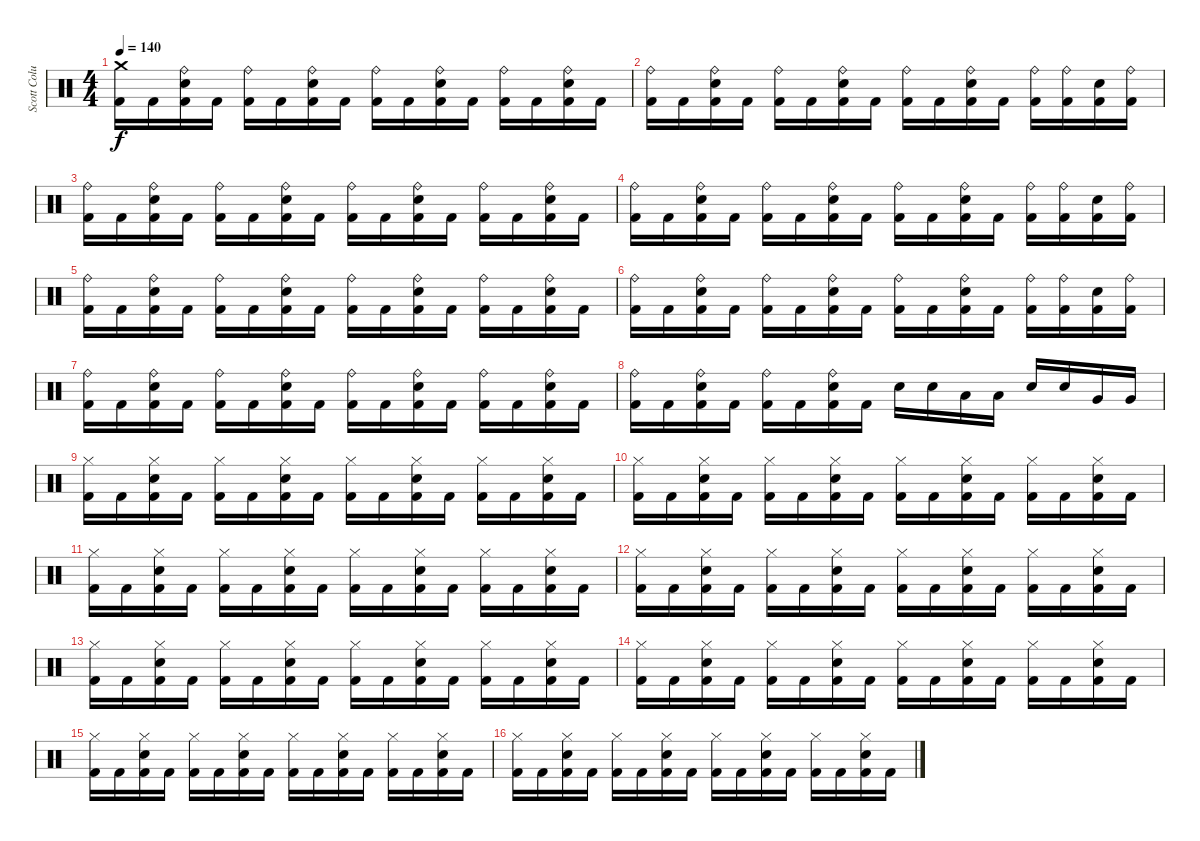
\track ("Scott Columbus(Drums)" "Scott Colu") {instrument percussion}
\staff {score}
\articulation defaults
\ts (4 4)
\tempo 140
\clef neutral
\ks c
("Crash medium (hit)" "Kick (hit) 2").16{dy f} "Kick (hit) 2".16 ("Ride (bell)" "Snare (hit) 2" "Kick (hit) 2").16 "Kick (hit) 2".16 ("Ride (bell)" "Kick (hit) 2").16 "Kick (hit) 2".16 ("Ride (bell)" "Snare (hit) 2" "Kick (hit) 2").16 "Kick (hit) 2".16 ("Ride (bell)" "Kick (hit) 2").16 "Kick (hit) 2".16 ("Ride (bell)" "Snare (hit) 2" "Kick (hit) 2").16 "Kick (hit) 2".16 ("Ride (bell)" "Kick (hit) 2").16 "Kick (hit) 2".16 ("Ride (bell)" "Snare (hit) 2" "Kick (hit) 2").16 "Kick (hit) 2".16 |
("Ride (bell)" "Kick (hit) 2").16 "Kick (hit) 2".16 ("Ride (bell)" "Snare (hit) 2" "Kick (hit) 2").16 "Kick (hit) 2".16 ("Ride (bell)" "Kick (hit) 2").16 "Kick (hit) 2".16 ("Ride (bell)" "Snare (hit) 2" "Kick (hit) 2").16 "Kick (hit) 2".16 ("Ride (bell)" "Kick (hit) 2").16 "Kick (hit) 2".16 ("Ride (bell)" "Snare (hit) 2" "Kick (hit) 2").16 "Kick (hit) 2".16 ("Ride (bell)" "Kick (hit) 2").16 ("Ride (bell)" "Kick (hit) 2").16 ("Snare (hit) 2" "Kick (hit) 2").16 ("Ride (bell)" "Kick (hit) 2").16 |
("Ride (bell)" "Kick (hit) 2").16 "Kick (hit) 2".16 ("Ride (bell)" "Snare (hit) 2" "Kick (hit) 2").16 "Kick (hit) 2".16 ("Ride (bell)" "Kick (hit) 2").16 "Kick (hit) 2".16 ("Ride (bell)" "Snare (hit) 2" "Kick (hit) 2").16 "Kick (hit) 2".16 ("Ride (bell)" "Kick (hit) 2").16 "Kick (hit) 2".16 ("Ride (bell)" "Snare (hit) 2" "Kick (hit) 2").16 "Kick (hit) 2".16 ("Ride (bell)" "Kick (hit) 2").16 "Kick (hit) 2".16 ("Ride (bell)" "Snare (hit) 2" "Kick (hit) 2").16 "Kick (hit) 2".16 |
("Ride (bell)" "Kick (hit) 2").16 "Kick (hit) 2".16 ("Ride (bell)" "Snare (hit) 2" "Kick (hit) 2").16 "Kick (hit) 2".16 ("Ride (bell)" "Kick (hit) 2").16 "Kick (hit) 2".16 ("Ride (bell)" "Snare (hit) 2" "Kick (hit) 2").16 "Kick (hit) 2".16 ("Ride (bell)" "Kick (hit) 2").16 "Kick (hit) 2".16 ("Ride (bell)" "Snare (hit) 2" "Kick (hit) 2").16 "Kick (hit) 2".16 ("Ride (bell)" "Kick (hit) 2").16 ("Ride (bell)" "Kick (hit) 2").16 ("Snare (hit) 2" "Kick (hit) 2").16 ("Ride (bell)" "Kick (hit) 2").16 |
("Ride (bell)" "Kick (hit) 2").16 "Kick (hit) 2".16 ("Ride (bell)" "Snare (hit) 2" "Kick (hit) 2").16 "Kick (hit) 2".16 ("Ride (bell)" "Kick (hit) 2").16 "Kick (hit) 2".16 ("Ride (bell)" "Snare (hit) 2" "Kick (hit) 2").16 "Kick (hit) 2".16 ("Ride (bell)" "Kick (hit) 2").16 "Kick (hit) 2".16 ("Ride (bell)" "Snare (hit) 2" "Kick (hit) 2").16 "Kick (hit) 2".16 ("Ride (bell)" "Kick (hit) 2").16 "Kick (hit) 2".16 ("Ride (bell)" "Snare (hit) 2" "Kick (hit) 2").16 "Kick (hit) 2".16 |
("Ride (bell)" "Kick (hit) 2").16 "Kick (hit) 2".16 ("Ride (bell)" "Snare (hit) 2" "Kick (hit) 2").16 "Kick (hit) 2".16 ("Ride (bell)" "Kick (hit) 2").16 "Kick (hit) 2".16 ("Ride (bell)" "Snare (hit) 2" "Kick (hit) 2").16 "Kick (hit) 2".16 ("Ride (bell)" "Kick (hit) 2").16 "Kick (hit) 2".16 ("Ride (bell)" "Snare (hit) 2" "Kick (hit) 2").16 "Kick (hit) 2".16 ("Ride (bell)" "Kick (hit) 2").16 ("Ride (bell)" "Kick (hit) 2").16 ("Snare (hit) 2" "Kick (hit) 2").16 ("Ride (bell)" "Kick (hit) 2").16 |
("Ride (bell)" "Kick (hit) 2").16 "Kick (hit) 2".16 ("Ride (bell)" "Snare (hit) 2" "Kick (hit) 2").16 "Kick (hit) 2".16 ("Ride (bell)" "Kick (hit) 2").16 "Kick (hit) 2".16 ("Ride (bell)" "Snare (hit) 2" "Kick (hit) 2").16 "Kick (hit) 2".16 ("Ride (bell)" "Kick (hit) 2").16 "Kick (hit) 2".16 ("Ride (bell)" "Snare (hit) 2" "Kick (hit) 2").16 "Kick (hit) 2".16 ("Ride (bell)" "Kick (hit) 2").16 "Kick (hit) 2".16 ("Ride (bell)" "Snare (hit) 2" "Kick (hit) 2").16 "Kick (hit) 2".16 |
("Ride (bell)" "Kick (hit) 2").16 "Kick (hit) 2".16 ("Ride (bell)" "Snare (hit) 2" "Kick (hit) 2").16 "Kick (hit) 2".16 ("Ride (bell)" "Kick (hit) 2").16 "Kick (hit) 2".16 ("Ride (bell)" "Snare (hit) 2" "Kick (hit) 2").16 "Kick (hit) 2".16 "Snare (hit) 2".16 "Snare (hit) 2".16 "Low Tom (hit)".16 "Low Tom (hit)".16 "Snare (hit) 2".16 "Snare (hit) 2".16 "Very Low Tom (hit)".16 "Very Low Tom (hit)".16 |
("Hi-Hat (closed)" "Kick (hit) 2").16 "Kick (hit) 2".16 ("Hi-Hat (closed)" "Snare (hit) 2" "Kick (hit) 2").16 "Kick (hit) 2".16 ("Hi-Hat (closed)" "Kick (hit) 2").16 "Kick (hit) 2".16 ("Hi-Hat (closed)" "Snare (hit) 2" "Kick (hit) 2").16 "Kick (hit) 2".16 ("Hi-Hat (closed)" "Kick (hit) 2").16 "Kick (hit) 2".16 ("Hi-Hat (closed)" "Snare (hit) 2" "Kick (hit) 2").16 "Kick (hit) 2".16 ("Hi-Hat (closed)" "Kick (hit) 2").16 "Kick (hit) 2".16 ("Hi-Hat (closed)" "Snare (hit) 2" "Kick (hit) 2").16 "Kick (hit) 2".16 |
("Hi-Hat (closed)" "Kick (hit) 2").16 "Kick (hit) 2".16 ("Hi-Hat (closed)" "Snare (hit) 2" "Kick (hit) 2").16 "Kick (hit) 2".16 ("Hi-Hat (closed)" "Kick (hit) 2").16 "Kick (hit) 2".16 ("Hi-Hat (closed)" "Snare (hit) 2" "Kick (hit) 2").16 "Kick (hit) 2".16 ("Hi-Hat (closed)" "Kick (hit) 2").16 "Kick (hit) 2".16 ("Hi-Hat (closed)" "Snare (hit) 2" "Kick (hit) 2").16 "Kick (hit) 2".16 ("Hi-Hat (closed)" "Kick (hit) 2").16 "Kick (hit) 2".16 ("Hi-Hat (closed)" "Snare (hit) 2" "Kick (hit) 2").16 "Kick (hit) 2".16 |
("Hi-Hat (closed)" "Kick (hit) 2").16 "Kick (hit) 2".16 ("Hi-Hat (closed)" "Snare (hit) 2" "Kick (hit) 2").16 "Kick (hit) 2".16 ("Hi-Hat (closed)" "Kick (hit) 2").16 "Kick (hit) 2".16 ("Hi-Hat (closed)" "Snare (hit) 2" "Kick (hit) 2").16 "Kick (hit) 2".16 ("Hi-Hat (closed)" "Kick (hit) 2").16 "Kick (hit) 2".16 ("Hi-Hat (closed)" "Snare (hit) 2" "Kick (hit) 2").16 "Kick (hit) 2".16 ("Hi-Hat (closed)" "Kick (hit) 2").16 "Kick (hit) 2".16 ("Hi-Hat (closed)" "Snare (hit) 2" "Kick (hit) 2").16 "Kick (hit) 2".16 |
("Hi-Hat (closed)" "Kick (hit) 2").16 "Kick (hit) 2".16 ("Hi-Hat (closed)" "Snare (hit) 2" "Kick (hit) 2").16 "Kick (hit) 2".16 ("Hi-Hat (closed)" "Kick (hit) 2").16 "Kick (hit) 2".16 ("Hi-Hat (closed)" "Snare (hit) 2" "Kick (hit) 2").16 "Kick (hit) 2".16 ("Hi-Hat (closed)" "Kick (hit) 2").16 "Kick (hit) 2".16 ("Hi-Hat (closed)" "Snare (hit) 2" "Kick (hit) 2").16 "Kick (hit) 2".16 ("Hi-Hat (closed)" "Kick (hit) 2").16 "Kick (hit) 2".16 ("Hi-Hat (closed)" "Snare (hit) 2" "Kick (hit) 2").16 "Kick (hit) 2".16 |
("Hi-Hat (closed)" "Kick (hit) 2").16 "Kick (hit) 2".16 ("Hi-Hat (closed)" "Snare (hit) 2" "Kick (hit) 2").16 "Kick (hit) 2".16 ("Hi-Hat (closed)" "Kick (hit) 2").16 "Kick (hit) 2".16 ("Hi-Hat (closed)" "Snare (hit) 2" "Kick (hit) 2").16 "Kick (hit) 2".16 ("Hi-Hat (closed)" "Kick (hit) 2").16 "Kick (hit) 2".16 ("Hi-Hat (closed)" "Snare (hit) 2" "Kick (hit) 2").16 "Kick (hit) 2".16 ("Hi-Hat (closed)" "Kick (hit) 2").16 "Kick (hit) 2".16 ("Hi-Hat (closed)" "Snare (hit) 2" "Kick (hit) 2").16 "Kick (hit) 2".16 |
("Hi-Hat (closed)" "Kick (hit) 2").16 "Kick (hit) 2".16 ("Hi-Hat (closed)" "Snare (hit) 2" "Kick (hit) 2").16 "Kick (hit) 2".16 ("Hi-Hat (closed)" "Kick (hit) 2").16 "Kick (hit) 2".16 ("Hi-Hat (closed)" "Snare (hit) 2" "Kick (hit) 2").16 "Kick (hit) 2".16 ("Hi-Hat (closed)" "Kick (hit) 2").16 "Kick (hit) 2".16 ("Hi-Hat (closed)" "Snare (hit) 2" "Kick (hit) 2").16 "Kick (hit) 2".16 ("Hi-Hat (closed)" "Kick (hit) 2").16 "Kick (hit) 2".16 ("Hi-Hat (closed)" "Snare (hit) 2" "Kick (hit) 2").16 "Kick (hit) 2".16 |
("Hi-Hat (closed)" "Kick (hit) 2").16 "Kick (hit) 2".16 ("Hi-Hat (closed)" "Snare (hit) 2" "Kick (hit) 2").16 "Kick (hit) 2".16 ("Hi-Hat (closed)" "Kick (hit) 2").16 "Kick (hit) 2".16 ("Hi-Hat (closed)" "Snare (hit) 2" "Kick (hit) 2").16 "Kick (hit) 2".16 ("Hi-Hat (closed)" "Kick (hit) 2").16 "Kick (hit) 2".16 ("Hi-Hat (closed)" "Snare (hit) 2" "Kick (hit) 2").16 "Kick (hit) 2".16 ("Hi-Hat (closed)" "Kick (hit) 2").16 "Kick (hit) 2".16 ("Hi-Hat (closed)" "Snare (hit) 2" "Kick (hit) 2").16 "Kick (hit) 2".16 |
("Hi-Hat (closed)" "Kick (hit) 2").16 "Kick (hit) 2".16 ("Hi-Hat (closed)" "Snare (hit) 2" "Kick (hit) 2").16 "Kick (hit) 2".16 ("Hi-Hat (closed)" "Kick (hit) 2").16 "Kick (hit) 2".16 ("Hi-Hat (closed)" "Snare (hit) 2" "Kick (hit) 2").16 "Kick (hit) 2".16 ("Hi-Hat (closed)" "Kick (hit) 2").16 "Kick (hit) 2".16 ("Hi-Hat (closed)" "Snare (hit) 2" "Kick (hit) 2").16 "Kick (hit) 2".16 ("Hi-Hat (closed)" "Kick (hit) 2").16 "Kick (hit) 2".16 ("Hi-Hat (closed)" "Snare (hit) 2" "Kick (hit) 2").16 "Kick (hit) 2".16
